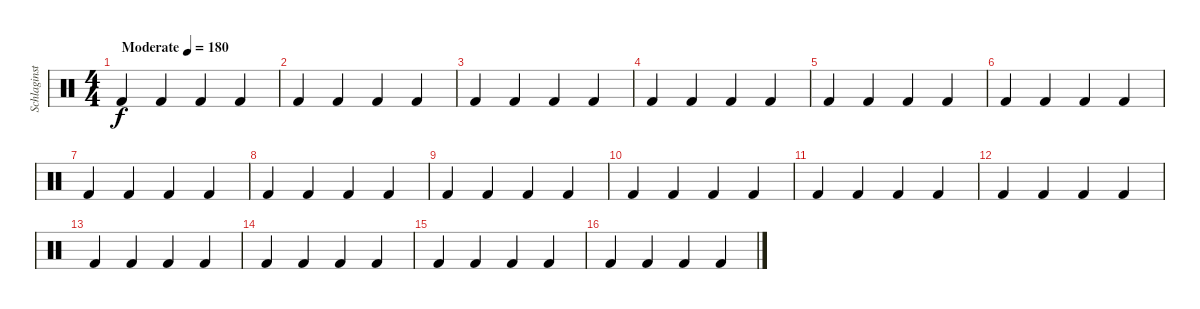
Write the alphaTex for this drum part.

\track ("Schlaginstrumente - Auswahl" "Schlaginst") {instrument percussion}
\staff {score}
\articulation defaults
\ts (4 4)
\tempo (180 "Moderate")
\clef neutral
\ks c "Kick (hit) 2".4{dy f} "Kick (hit) 2".4 "Kick (hit) 2".4 "Kick (hit) 2".4
|
"Kick (hit) 2".4 "Kick (hit) 2".4 "Kick (hit) 2".4 "Kick (hit) 2".4 |
"Kick (hit) 2".4 "Kick (hit) 2".4 "Kick (hit) 2".4 "Kick (hit) 2".4 |
"Kick (hit) 2".4 "Kick (hit) 2".4 "Kick (hit) 2".4 "Kick (hit) 2".4 |
"Kick (hit) 2".4 "Kick (hit) 2".4 "Kick (hit) 2".4 "Kick (hit) 2".4 |
"Kick (hit) 2".4 "Kick (hit) 2".4 "Kick (hit) 2".4 "Kick (hit) 2".4 |
"Kick (hit) 2".4 "Kick (hit) 2".4 "Kick (hit) 2".4 "Kick (hit) 2".4 |
"Kick (hit) 2".4 "Kick (hit) 2".4 "Kick (hit) 2".4 "Kick (hit) 2".4 |
"Kick (hit) 2".4 "Kick (hit) 2".4 "Kick (hit) 2".4 "Kick (hit) 2".4 |
"Kick (hit) 2".4 "Kick (hit) 2".4 "Kick (hit) 2".4 "Kick (hit) 2".4 |
"Kick (hit) 2".4 "Kick (hit) 2".4 "Kick (hit) 2".4 "Kick (hit) 2".4 |
"Kick (hit) 2".4 "Kick (hit) 2".4 "Kick (hit) 2".4 "Kick (hit) 2".4 |
"Kick (hit) 2".4 "Kick (hit) 2".4 "Kick (hit) 2".4 "Kick (hit) 2".4 |
"Kick (hit) 2".4 "Kick (hit) 2".4 "Kick (hit) 2".4 "Kick (hit) 2".4 |
"Kick (hit) 2".4 "Kick (hit) 2".4 "Kick (hit) 2".4 "Kick (hit) 2".4 |
"Kick (hit) 2".4 "Kick (hit) 2".4 "Kick (hit) 2".4 "Kick (hit) 2".4
